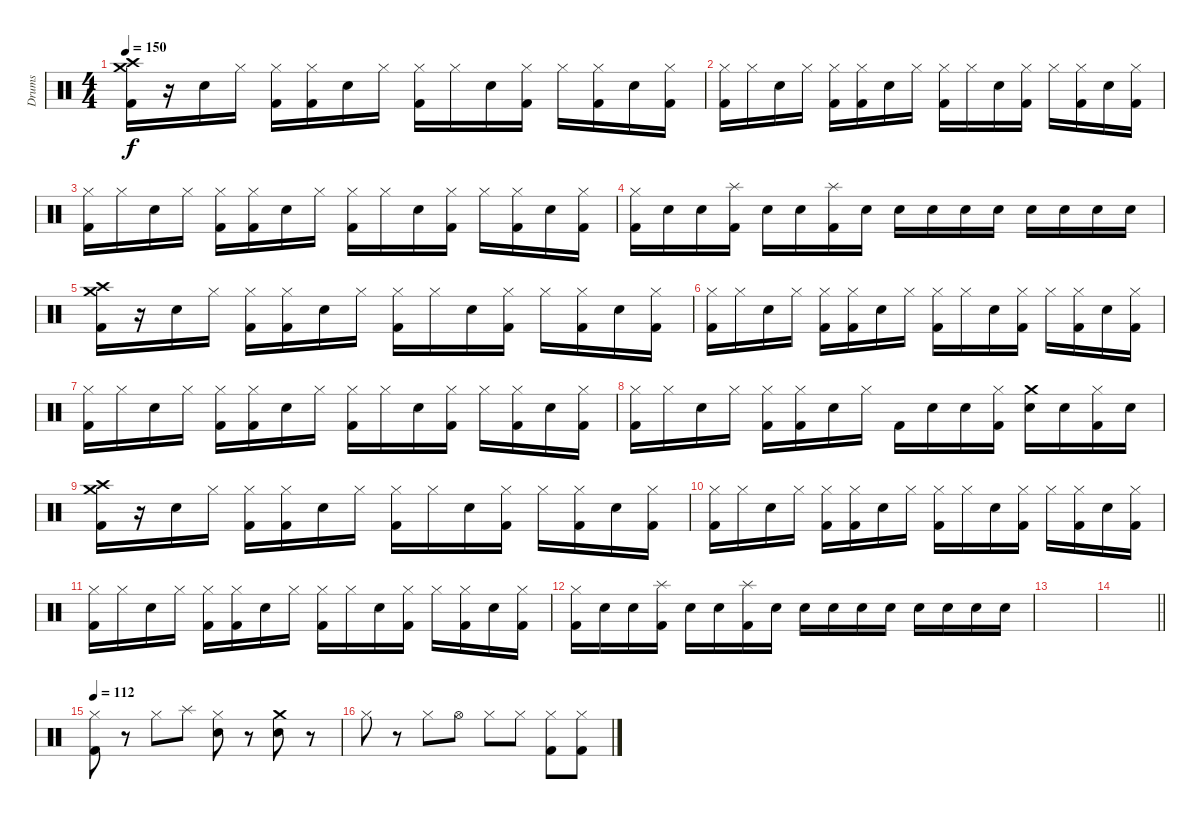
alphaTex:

\track ("Drums" "Drums") {instrument percussion}
\staff {score}
\articulation defaults
\ts (4 4)
\tempo 150
\clef neutral
\ks c
("Crash medium (hit)" "Crash high (hit)" "Kick (hit) 2").16{dy f} r.16 "Snare (hit) 2".16 "Hi-Hat (closed)".16 ("Hi-Hat (closed)" "Kick (hit) 2").16 ("Hi-Hat (closed)" "Kick (hit) 2").16 "Snare (hit) 2".16 "Hi-Hat (closed)".16 ("Hi-Hat (closed)" "Kick (hit) 2").16 "Hi-Hat (closed)".16 "Snare (hit) 2".16 ("Hi-Hat (closed)" "Kick (hit) 2").16 "Hi-Hat (closed)".16 ("Hi-Hat (closed)" "Kick (hit) 2").16 "Snare (hit) 2".16 ("Hi-Hat (closed)" "Kick (hit) 2").16 |
("Hi-Hat (closed)" "Kick (hit) 2").16 "Hi-Hat (closed)".16 "Snare (hit) 2".16 "Hi-Hat (closed)".16 ("Hi-Hat (closed)" "Kick (hit) 2").16 ("Hi-Hat (closed)" "Kick (hit) 2").16 "Snare (hit) 2".16 "Hi-Hat (closed)".16 ("Hi-Hat (closed)" "Kick (hit) 2").16 "Hi-Hat (closed)".16 "Snare (hit) 2".16 ("Hi-Hat (closed)" "Kick (hit) 2").16 "Hi-Hat (closed)".16 ("Hi-Hat (closed)" "Kick (hit) 2").16 "Snare (hit) 2".16 ("Hi-Hat (closed)" "Kick (hit) 2").16 |
("Hi-Hat (closed)" "Kick (hit) 2").16 "Hi-Hat (closed)".16 "Snare (hit) 2".16 "Hi-Hat (closed)".16 ("Hi-Hat (closed)" "Kick (hit) 2").16 ("Hi-Hat (closed)" "Kick (hit) 2").16 "Snare (hit) 2".16 "Hi-Hat (closed)".16 ("Hi-Hat (closed)" "Kick (hit) 2").16 "Hi-Hat (closed)".16 "Snare (hit) 2".16 ("Hi-Hat (closed)" "Kick (hit) 2").16 "Hi-Hat (closed)".16 ("Hi-Hat (closed)" "Kick (hit) 2").16 "Snare (hit) 2".16 ("Hi-Hat (closed)" "Kick (hit) 2").16 |
("Hi-Hat (closed)" "Kick (hit) 2").16 "Snare (hit) 2".16 "Snare (hit) 2".16 ("Splash (hit)" "Kick (hit) 2").16 "Snare (hit) 2".16 "Snare (hit) 2".16 ("Splash (hit)" "Kick (hit) 2").16 "Snare (hit) 2".16 "Snare (hit) 2".16 "Snare (hit) 2".16 "Snare (hit) 2".16 "Snare (hit) 2".16 "Snare (hit) 2".16 "Snare (hit) 2".16 "Snare (hit) 2".16 "Snare (hit) 2".16 |
("Crash medium (hit)" "Crash high (hit)" "Kick (hit) 2").16 r.16 "Snare (hit) 2".16 "Hi-Hat (closed)".16 ("Hi-Hat (closed)" "Kick (hit) 2").16 ("Hi-Hat (closed)" "Kick (hit) 2").16 "Snare (hit) 2".16 "Hi-Hat (closed)".16 ("Hi-Hat (closed)" "Kick (hit) 2").16 "Hi-Hat (closed)".16 "Snare (hit) 2".16 ("Hi-Hat (closed)" "Kick (hit) 2").16 "Hi-Hat (closed)".16 ("Hi-Hat (closed)" "Kick (hit) 2").16 "Snare (hit) 2".16 ("Hi-Hat (closed)" "Kick (hit) 2").16 |
("Hi-Hat (closed)" "Kick (hit) 2").16 "Hi-Hat (closed)".16 "Snare (hit) 2".16 "Hi-Hat (closed)".16 ("Hi-Hat (closed)" "Kick (hit) 2").16 ("Hi-Hat (closed)" "Kick (hit) 2").16 "Snare (hit) 2".16 "Hi-Hat (closed)".16 ("Hi-Hat (closed)" "Kick (hit) 2").16 "Hi-Hat (closed)".16 "Snare (hit) 2".16 ("Hi-Hat (closed)" "Kick (hit) 2").16 "Hi-Hat (closed)".16 ("Hi-Hat (closed)" "Kick (hit) 2").16 "Snare (hit) 2".16 ("Hi-Hat (closed)" "Kick (hit) 2").16 |
("Hi-Hat (closed)" "Kick (hit) 2").16 "Hi-Hat (closed)".16 "Snare (hit) 2".16 "Hi-Hat (closed)".16 ("Hi-Hat (closed)" "Kick (hit) 2").16 ("Hi-Hat (closed)" "Kick (hit) 2").16 "Snare (hit) 2".16 "Hi-Hat (closed)".16 ("Hi-Hat (closed)" "Kick (hit) 2").16 "Hi-Hat (closed)".16 "Snare (hit) 2".16 ("Hi-Hat (closed)" "Kick (hit) 2").16 "Hi-Hat (closed)".16 ("Hi-Hat (closed)" "Kick (hit) 2").16 "Snare (hit) 2".16 ("Hi-Hat (closed)" "Kick (hit) 2").16 |
("Hi-Hat (closed)" "Kick (hit) 2").16 "Hi-Hat (closed)".16 "Snare (hit) 2".16 "Hi-Hat (closed)".16 ("Hi-Hat (closed)" "Kick (hit) 2").16 ("Hi-Hat (closed)" "Kick (hit) 2").16 "Snare (hit) 2".16 "Hi-Hat (closed)".16 "Kick (hit) 2".16 "Snare (hit) 2".16 "Snare (hit) 2".16 ("Hi-Hat (closed)" "Kick (hit) 2").16 ("Crash medium (hit)" "Snare (hit) 2").16 "Snare (hit) 2".16 ("Hi-Hat (closed)" "Kick (hit) 2").16 "Snare (hit) 2".16 |
("Crash medium (hit)" "Crash high (hit)" "Kick (hit) 2").16 r.16 "Snare (hit) 2".16 "Hi-Hat (closed)".16 ("Hi-Hat (closed)" "Kick (hit) 2").16 ("Hi-Hat (closed)" "Kick (hit) 2").16 "Snare (hit) 2".16 "Hi-Hat (closed)".16 ("Hi-Hat (closed)" "Kick (hit) 2").16 "Hi-Hat (closed)".16 "Snare (hit) 2".16 ("Hi-Hat (closed)" "Kick (hit) 2").16 "Hi-Hat (closed)".16 ("Hi-Hat (closed)" "Kick (hit) 2").16 "Snare (hit) 2".16 ("Hi-Hat (closed)" "Kick (hit) 2").16 |
("Hi-Hat (closed)" "Kick (hit) 2").16 "Hi-Hat (closed)".16 "Snare (hit) 2".16 "Hi-Hat (closed)".16 ("Hi-Hat (closed)" "Kick (hit) 2").16 ("Hi-Hat (closed)" "Kick (hit) 2").16 "Snare (hit) 2".16 "Hi-Hat (closed)".16 ("Hi-Hat (closed)" "Kick (hit) 2").16 "Hi-Hat (closed)".16 "Snare (hit) 2".16 ("Hi-Hat (closed)" "Kick (hit) 2").16 "Hi-Hat (closed)".16 ("Hi-Hat (closed)" "Kick (hit) 2").16 "Snare (hit) 2".16 ("Hi-Hat (closed)" "Kick (hit) 2").16 |
("Hi-Hat (closed)" "Kick (hit) 2").16 "Hi-Hat (closed)".16 "Snare (hit) 2".16 "Hi-Hat (closed)".16 ("Hi-Hat (closed)" "Kick (hit) 2").16 ("Hi-Hat (closed)" "Kick (hit) 2").16 "Snare (hit) 2".16 "Hi-Hat (closed)".16 ("Hi-Hat (closed)" "Kick (hit) 2").16 "Hi-Hat (closed)".16 "Snare (hit) 2".16 ("Hi-Hat (closed)" "Kick (hit) 2").16 "Hi-Hat (closed)".16 ("Hi-Hat (closed)" "Kick (hit) 2").16 "Snare (hit) 2".16 ("Hi-Hat (closed)" "Kick (hit) 2").16 |
("Hi-Hat (closed)" "Kick (hit) 2").16 "Snare (hit) 2".16 "Snare (hit) 2".16 ("Splash (hit)" "Kick (hit) 2").16 "Snare (hit) 2".16 "Snare (hit) 2".16 ("Splash (hit)" "Kick (hit) 2").16 "Snare (hit) 2".16 "Snare (hit) 2".16 "Snare (hit) 2".16 "Snare (hit) 2".16 "Snare (hit) 2".16 "Snare (hit) 2".16 "Snare (hit) 2".16 "Snare (hit) 2".16 "Snare (hit) 2".16 |
|
\barLineRight lightlight
|
\section ("" "")
\tempo 112
("Hi-Hat (closed)" "Kick (hit) 2").8{volume 13} r.8 "Hi-Hat (closed)".8 "Splash (hit)".8 ("Hi-Hat (closed)" "Snare (hit) 2").8 r.8 ("Crash medium (hit)" "Snare (hit) 2").8 r.8 |
"Hi-Hat (closed)".8 r.8 "Hi-Hat (closed)".8 "Hi-Hat (open)".8 "Hi-Hat (closed)".8 "Hi-Hat (closed)".8 ("Hi-Hat (closed)" "Kick (hit) 2").8 ("Hi-Hat (closed)" "Kick (hit) 2").8
